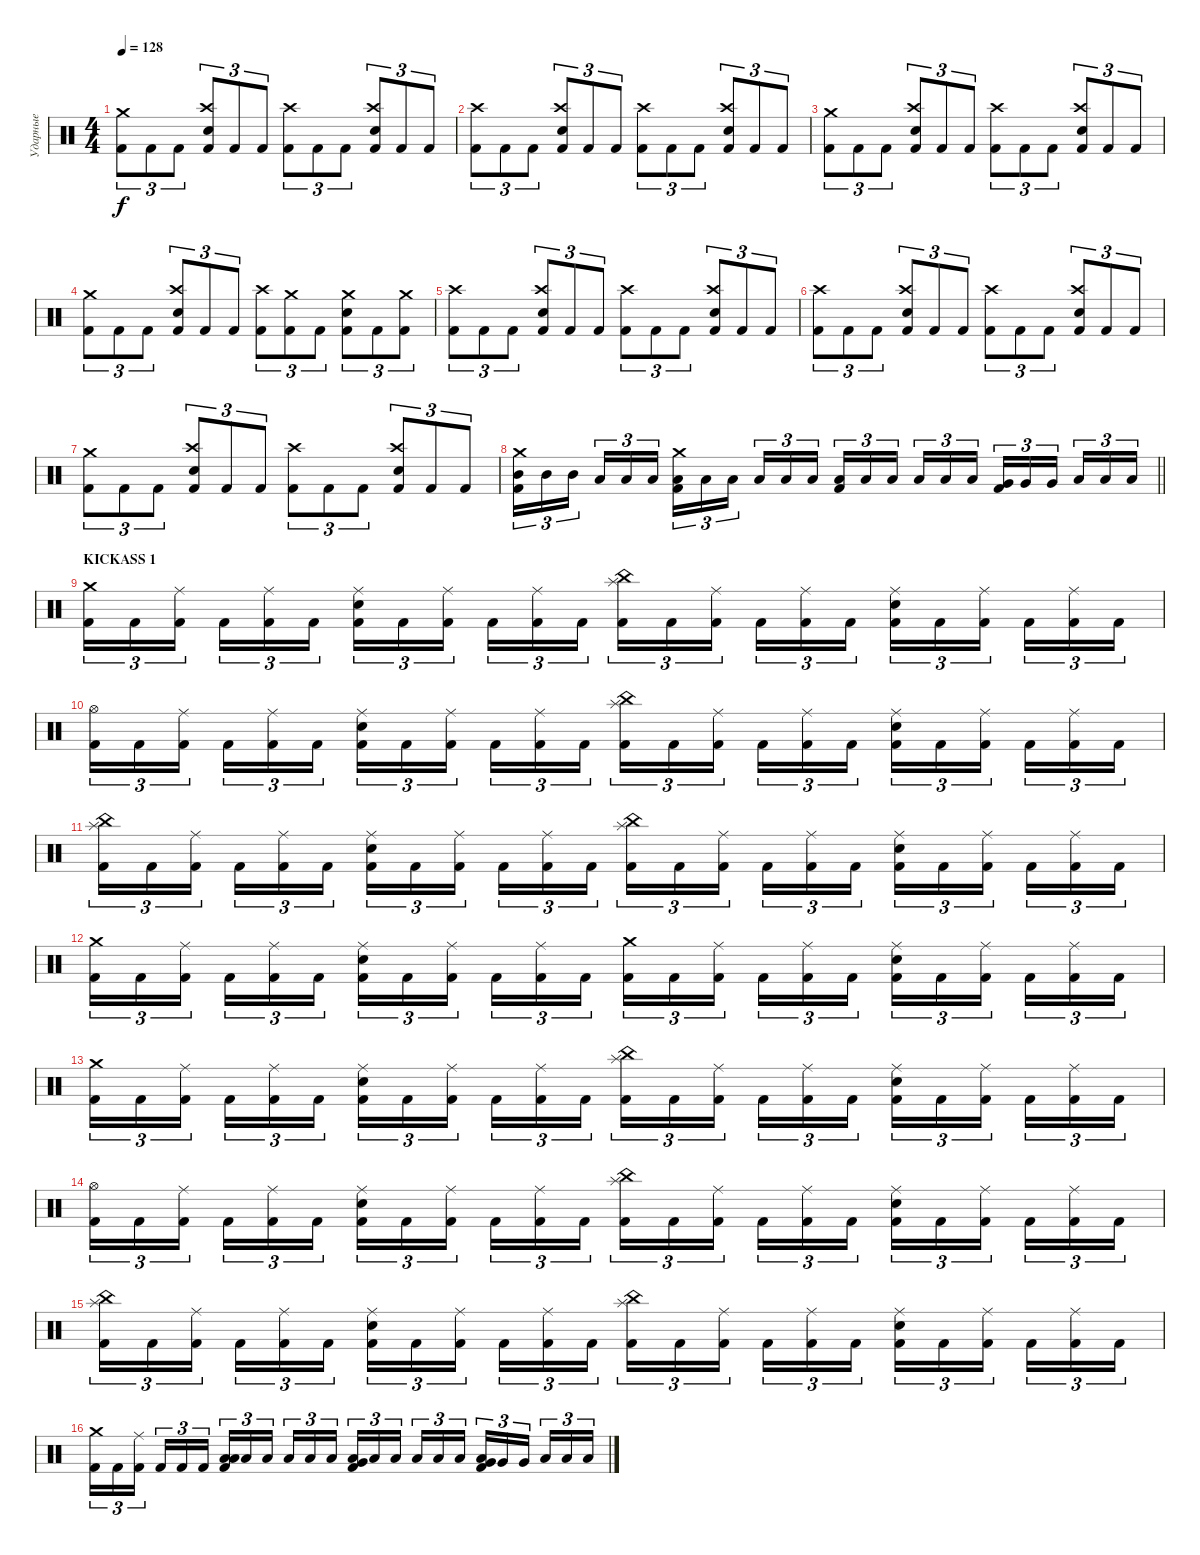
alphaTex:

\track ("Ударные" "Ударные") {instrument percussion}
\staff {score}
\articulation defaults
\ts (4 4)
\tempo 128
\clef neutral
\ks c
("Crash medium (hit)" "Kick (hit) 2").8{tu (3 2) dy f} "Kick (hit) 2".8{tu (3 2)} "Kick (hit) 2".8{tu (3 2)} ("Crash high (hit)" "Electric Snare (hit)" "Kick (hit) 2").8{tu (3 2)} "Kick (hit) 2".8{tu (3 2)} "Kick (hit) 2".8{tu (3 2)} ("Crash high (hit)" "Kick (hit) 2").8{tu (3 2)} "Kick (hit) 2".8{tu (3 2)} "Kick (hit) 2".8{tu (3 2)} ("Crash high (hit)" "Electric Snare (hit)" "Kick (hit) 2").8{tu (3 2)} "Kick (hit) 2".8{tu (3 2)} "Kick (hit) 2".8{tu (3 2)} |
("Crash high (hit)" "Kick (hit) 2").8{tu (3 2)} "Kick (hit) 2".8{tu (3 2)} "Kick (hit) 2".8{tu (3 2)} ("Crash high (hit)" "Electric Snare (hit)" "Kick (hit) 2").8{tu (3 2)} "Kick (hit) 2".8{tu (3 2)} "Kick (hit) 2".8{tu (3 2)} ("Crash high (hit)" "Kick (hit) 2").8{tu (3 2)} "Kick (hit) 2".8{tu (3 2)} "Kick (hit) 2".8{tu (3 2)} ("Crash high (hit)" "Electric Snare (hit)" "Kick (hit) 2").8{tu (3 2)} "Kick (hit) 2".8{tu (3 2)} "Kick (hit) 2".8{tu (3 2)} |
("Crash medium (hit)" "Kick (hit) 2").8{tu (3 2)} "Kick (hit) 2".8{tu (3 2)} "Kick (hit) 2".8{tu (3 2)} ("Crash high (hit)" "Electric Snare (hit)" "Kick (hit) 2").8{tu (3 2)} "Kick (hit) 2".8{tu (3 2)} "Kick (hit) 2".8{tu (3 2)} ("Crash high (hit)" "Kick (hit) 2").8{tu (3 2)} "Kick (hit) 2".8{tu (3 2)} "Kick (hit) 2".8{tu (3 2)} ("Crash high (hit)" "Electric Snare (hit)" "Kick (hit) 2").8{tu (3 2)} "Kick (hit) 2".8{tu (3 2)} "Kick (hit) 2".8{tu (3 2)} |
("Crash medium (hit)" "Kick (hit) 2").8{tu (3 2)} "Kick (hit) 2".8{tu (3 2)} "Kick (hit) 2".8{tu (3 2)} ("Crash high (hit)" "Electric Snare (hit)" "Kick (hit) 2").8{tu (3 2)} "Kick (hit) 2".8{tu (3 2)} "Kick (hit) 2".8{tu (3 2)} ("Crash high (hit)" "Kick (hit) 2").8{tu (3 2)} ("Crash medium (hit)" "Kick (hit) 2").8{tu (3 2)} "Kick (hit) 2".8{tu (3 2)} ("Crash medium (hit)" "Electric Snare (hit)" "Kick (hit) 2").8{tu (3 2)} "Kick (hit) 2".8{tu (3 2)} ("Crash medium (hit)" "Kick (hit) 2").8{tu (3 2)} |
("Crash high (hit)" "Kick (hit) 2").8{tu (3 2)} "Kick (hit) 2".8{tu (3 2)} "Kick (hit) 2".8{tu (3 2)} ("Crash high (hit)" "Electric Snare (hit)" "Kick (hit) 2").8{tu (3 2)} "Kick (hit) 2".8{tu (3 2)} "Kick (hit) 2".8{tu (3 2)} ("Crash high (hit)" "Kick (hit) 2").8{tu (3 2)} "Kick (hit) 2".8{tu (3 2)} "Kick (hit) 2".8{tu (3 2)} ("Crash high (hit)" "Electric Snare (hit)" "Kick (hit) 2").8{tu (3 2)} "Kick (hit) 2".8{tu (3 2)} "Kick (hit) 2".8{tu (3 2)} |
("Crash high (hit)" "Kick (hit) 2").8{tu (3 2)} "Kick (hit) 2".8{tu (3 2)} "Kick (hit) 2".8{tu (3 2)} ("Crash high (hit)" "Electric Snare (hit)" "Kick (hit) 2").8{tu (3 2)} "Kick (hit) 2".8{tu (3 2)} "Kick (hit) 2".8{tu (3 2)} ("Crash high (hit)" "Kick (hit) 2").8{tu (3 2)} "Kick (hit) 2".8{tu (3 2)} "Kick (hit) 2".8{tu (3 2)} ("Crash high (hit)" "Electric Snare (hit)" "Kick (hit) 2").8{tu (3 2)} "Kick (hit) 2".8{tu (3 2)} "Kick (hit) 2".8{tu (3 2)} |
("Crash medium (hit)" "Kick (hit) 2").8{tu (3 2)} "Kick (hit) 2".8{tu (3 2)} "Kick (hit) 2".8{tu (3 2)} ("Crash high (hit)" "Electric Snare (hit)" "Kick (hit) 2").8{tu (3 2)} "Kick (hit) 2".8{tu (3 2)} "Kick (hit) 2".8{tu (3 2)} ("Crash high (hit)" "Kick (hit) 2").8{tu (3 2)} "Kick (hit) 2".8{tu (3 2)} "Kick (hit) 2".8{tu (3 2)} ("Crash high (hit)" "Electric Snare (hit)" "Kick (hit) 2").8{tu (3 2)} "Kick (hit) 2".8{tu (3 2)} "Kick (hit) 2".8{tu (3 2)} |
\barLineRight lightlight
("Crash medium (hit)" "Mid Tom (hit)" "Kick (hit) 2").16{tu (3 2)} "Mid Tom (hit)".16{tu (3 2)} "Mid Tom (hit)".16{tu (3 2) beam splitsecondary} "Low Tom (hit)".16{tu (3 2)} "Low Tom (hit)".16{tu (3 2)} "Low Tom (hit)".16{tu (3 2)} ("Crash medium (hit)" "Low Tom (hit)" "Kick (hit) 2").16{tu (3 2)} "Low Tom (hit)".16{tu (3 2)} "Low Tom (hit)".16{tu (3 2) beam splitsecondary} "Low Tom (hit)".16{tu (3 2)} "Low Tom (hit)".16{tu (3 2)} "Low Tom (hit)".16{tu (3 2)} ("Low Tom (hit)" "Kick (hit) 2").16{tu (3 2)} "Low Tom (hit)".16{tu (3 2)} "Low Tom (hit)".16{tu (3 2) beam splitsecondary} "Low Tom (hit)".16{tu (3 2)} "Low Tom (hit)".16{tu (3 2)} "Low Tom (hit)".16{tu (3 2)} ("Very Low Tom (hit)" "Kick (hit) 2").16{tu (3 2)} "Very Low Tom (hit)".16{tu (3 2)} "Very Low Tom (hit)".16{tu (3 2) beam splitsecondary} "Low Floor Tom (hit)".16{tu (3 2)} "Low Floor Tom (hit)".16{tu (3 2)} "Low Floor Tom (hit)".16{tu (3 2)} |
\section ("" "KICKASS 1")
("Crash medium (hit)" "Kick (hit) 2").16{tu (3 2)} "Kick (hit) 2".16{tu (3 2)} ("Ride (middle)" "Kick (hit) 2").16{tu (3 2) beam splitsecondary} "Kick (hit) 2".16{tu (3 2)} ("Ride (middle)" "Kick (hit) 2").16{tu (3 2)} "Kick (hit) 2".16{tu (3 2)} ("Ride (middle)" "Electric Snare (hit)" "Kick (hit) 2").16{tu (3 2)} "Kick (hit) 2".16{tu (3 2)} ("Ride (middle)" "Kick (hit) 2").16{tu (3 2) beam splitsecondary} "Kick (hit) 2".16{tu (3 2)} ("Ride (middle)" "Kick (hit) 2").16{tu (3 2)} "Kick (hit) 2".16{tu (3 2)} ("China (hit)" "Splash (hit)" "Kick (hit) 2").16{tu (3 2)} "Kick (hit) 2".16{tu (3 2)} ("Ride (middle)" "Kick (hit) 2").16{tu (3 2) beam splitsecondary} "Kick (hit) 2".16{tu (3 2)} ("Ride (middle)" "Kick (hit) 2").16{tu (3 2)} "Kick (hit) 2".16{tu (3 2)} ("Ride (middle)" "Electric Snare (hit)" "Kick (hit) 2").16{tu (3 2)} "Kick (hit) 2".16{tu (3 2)} ("Ride (middle)" "Kick (hit) 2").16{tu (3 2) beam splitsecondary} "Kick (hit) 2".16{tu (3 2)} ("Ride (middle)" "Kick (hit) 2").16{tu (3 2)} "Kick (hit) 2".16{tu (3 2)} |
("Hi-Hat (open)" "Kick (hit) 2").16{tu (3 2)} "Kick (hit) 2".16{tu (3 2)} ("Ride (middle)" "Kick (hit) 2").16{tu (3 2) beam splitsecondary} "Kick (hit) 2".16{tu (3 2)} ("Ride (middle)" "Kick (hit) 2").16{tu (3 2)} "Kick (hit) 2".16{tu (3 2)} ("Ride (middle)" "Electric Snare (hit)" "Kick (hit) 2").16{tu (3 2)} "Kick (hit) 2".16{tu (3 2)} ("Ride (middle)" "Kick (hit) 2").16{tu (3 2) beam splitsecondary} "Kick (hit) 2".16{tu (3 2)} ("Ride (middle)" "Kick (hit) 2").16{tu (3 2)} "Kick (hit) 2".16{tu (3 2)} ("China (hit)" "Splash (hit)" "Kick (hit) 2").16{tu (3 2)} "Kick (hit) 2".16{tu (3 2)} ("Ride (middle)" "Kick (hit) 2").16{tu (3 2) beam splitsecondary} "Kick (hit) 2".16{tu (3 2)} ("Ride (middle)" "Kick (hit) 2").16{tu (3 2)} "Kick (hit) 2".16{tu (3 2)} ("Ride (middle)" "Electric Snare (hit)" "Kick (hit) 2").16{tu (3 2)} "Kick (hit) 2".16{tu (3 2)} ("Ride (middle)" "Kick (hit) 2").16{tu (3 2) beam splitsecondary} "Kick (hit) 2".16{tu (3 2)} ("Ride (middle)" "Kick (hit) 2").16{tu (3 2)} "Kick (hit) 2".16{tu (3 2)} |
("China (hit)" "Splash (hit)" "Kick (hit) 2").16{tu (3 2)} "Kick (hit) 2".16{tu (3 2)} ("Ride (middle)" "Kick (hit) 2").16{tu (3 2) beam splitsecondary} "Kick (hit) 2".16{tu (3 2)} ("Ride (middle)" "Kick (hit) 2").16{tu (3 2)} "Kick (hit) 2".16{tu (3 2)} ("Ride (middle)" "Electric Snare (hit)" "Kick (hit) 2").16{tu (3 2)} "Kick (hit) 2".16{tu (3 2)} ("Ride (middle)" "Kick (hit) 2").16{tu (3 2) beam splitsecondary} "Kick (hit) 2".16{tu (3 2)} ("Ride (middle)" "Kick (hit) 2").16{tu (3 2)} "Kick (hit) 2".16{tu (3 2)} ("China (hit)" "Splash (hit)" "Kick (hit) 2").16{tu (3 2)} "Kick (hit) 2".16{tu (3 2)} ("Ride (middle)" "Kick (hit) 2").16{tu (3 2) beam splitsecondary} "Kick (hit) 2".16{tu (3 2)} ("Ride (middle)" "Kick (hit) 2").16{tu (3 2)} "Kick (hit) 2".16{tu (3 2)} ("Ride (middle)" "Electric Snare (hit)" "Kick (hit) 2").16{tu (3 2)} "Kick (hit) 2".16{tu (3 2)} ("Ride (middle)" "Kick (hit) 2").16{tu (3 2) beam splitsecondary} "Kick (hit) 2".16{tu (3 2)} ("Ride (middle)" "Kick (hit) 2").16{tu (3 2)} "Kick (hit) 2".16{tu (3 2)} |
("Crash medium (hit)" "Kick (hit) 2").16{tu (3 2)} "Kick (hit) 2".16{tu (3 2)} ("Ride (middle)" "Kick (hit) 2").16{tu (3 2) beam splitsecondary} "Kick (hit) 2".16{tu (3 2)} ("Ride (middle)" "Kick (hit) 2").16{tu (3 2)} "Kick (hit) 2".16{tu (3 2)} ("Ride (middle)" "Electric Snare (hit)" "Kick (hit) 2").16{tu (3 2)} "Kick (hit) 2".16{tu (3 2)} ("Ride (middle)" "Kick (hit) 2").16{tu (3 2) beam splitsecondary} "Kick (hit) 2".16{tu (3 2)} ("Ride (middle)" "Kick (hit) 2").16{tu (3 2)} "Kick (hit) 2".16{tu (3 2)} ("Crash medium (hit)" "Kick (hit) 2").16{tu (3 2)} "Kick (hit) 2".16{tu (3 2)} ("Ride (middle)" "Kick (hit) 2").16{tu (3 2) beam splitsecondary} "Kick (hit) 2".16{tu (3 2)} ("Ride (middle)" "Kick (hit) 2").16{tu (3 2)} "Kick (hit) 2".16{tu (3 2)} ("Ride (middle)" "Electric Snare (hit)" "Kick (hit) 2").16{tu (3 2)} "Kick (hit) 2".16{tu (3 2)} ("Ride (middle)" "Kick (hit) 2").16{tu (3 2) beam splitsecondary} "Kick (hit) 2".16{tu (3 2)} ("Ride (middle)" "Kick (hit) 2").16{tu (3 2)} "Kick (hit) 2".16{tu (3 2)} |
("Crash medium (hit)" "Kick (hit) 2").16{tu (3 2)} "Kick (hit) 2".16{tu (3 2)} ("Ride (middle)" "Kick (hit) 2").16{tu (3 2) beam splitsecondary} "Kick (hit) 2".16{tu (3 2)} ("Ride (middle)" "Kick (hit) 2").16{tu (3 2)} "Kick (hit) 2".16{tu (3 2)} ("Ride (middle)" "Electric Snare (hit)" "Kick (hit) 2").16{tu (3 2)} "Kick (hit) 2".16{tu (3 2)} ("Ride (middle)" "Kick (hit) 2").16{tu (3 2) beam splitsecondary} "Kick (hit) 2".16{tu (3 2)} ("Ride (middle)" "Kick (hit) 2").16{tu (3 2)} "Kick (hit) 2".16{tu (3 2)} ("China (hit)" "Splash (hit)" "Kick (hit) 2").16{tu (3 2)} "Kick (hit) 2".16{tu (3 2)} ("Ride (middle)" "Kick (hit) 2").16{tu (3 2) beam splitsecondary} "Kick (hit) 2".16{tu (3 2)} ("Ride (middle)" "Kick (hit) 2").16{tu (3 2)} "Kick (hit) 2".16{tu (3 2)} ("Ride (middle)" "Electric Snare (hit)" "Kick (hit) 2").16{tu (3 2)} "Kick (hit) 2".16{tu (3 2)} ("Ride (middle)" "Kick (hit) 2").16{tu (3 2) beam splitsecondary} "Kick (hit) 2".16{tu (3 2)} ("Ride (middle)" "Kick (hit) 2").16{tu (3 2)} "Kick (hit) 2".16{tu (3 2)} |
("Hi-Hat (open)" "Kick (hit) 2").16{tu (3 2)} "Kick (hit) 2".16{tu (3 2)} ("Ride (middle)" "Kick (hit) 2").16{tu (3 2) beam splitsecondary} "Kick (hit) 2".16{tu (3 2)} ("Ride (middle)" "Kick (hit) 2").16{tu (3 2)} "Kick (hit) 2".16{tu (3 2)} ("Ride (middle)" "Electric Snare (hit)" "Kick (hit) 2").16{tu (3 2)} "Kick (hit) 2".16{tu (3 2)} ("Ride (middle)" "Kick (hit) 2").16{tu (3 2) beam splitsecondary} "Kick (hit) 2".16{tu (3 2)} ("Ride (middle)" "Kick (hit) 2").16{tu (3 2)} "Kick (hit) 2".16{tu (3 2)} ("China (hit)" "Splash (hit)" "Kick (hit) 2").16{tu (3 2)} "Kick (hit) 2".16{tu (3 2)} ("Ride (middle)" "Kick (hit) 2").16{tu (3 2) beam splitsecondary} "Kick (hit) 2".16{tu (3 2)} ("Ride (middle)" "Kick (hit) 2").16{tu (3 2)} "Kick (hit) 2".16{tu (3 2)} ("Ride (middle)" "Electric Snare (hit)" "Kick (hit) 2").16{tu (3 2)} "Kick (hit) 2".16{tu (3 2)} ("Ride (middle)" "Kick (hit) 2").16{tu (3 2) beam splitsecondary} "Kick (hit) 2".16{tu (3 2)} ("Ride (middle)" "Kick (hit) 2").16{tu (3 2)} "Kick (hit) 2".16{tu (3 2)} |
("China (hit)" "Splash (hit)" "Kick (hit) 2").16{tu (3 2)} "Kick (hit) 2".16{tu (3 2)} ("Ride (middle)" "Kick (hit) 2").16{tu (3 2) beam splitsecondary} "Kick (hit) 2".16{tu (3 2)} ("Ride (middle)" "Kick (hit) 2").16{tu (3 2)} "Kick (hit) 2".16{tu (3 2)} ("Ride (middle)" "Electric Snare (hit)" "Kick (hit) 2").16{tu (3 2)} "Kick (hit) 2".16{tu (3 2)} ("Ride (middle)" "Kick (hit) 2").16{tu (3 2) beam splitsecondary} "Kick (hit) 2".16{tu (3 2)} ("Ride (middle)" "Kick (hit) 2").16{tu (3 2)} "Kick (hit) 2".16{tu (3 2)} ("China (hit)" "Splash (hit)" "Kick (hit) 2").16{tu (3 2)} "Kick (hit) 2".16{tu (3 2)} ("Ride (middle)" "Kick (hit) 2").16{tu (3 2) beam splitsecondary} "Kick (hit) 2".16{tu (3 2)} ("Ride (middle)" "Kick (hit) 2").16{tu (3 2)} "Kick (hit) 2".16{tu (3 2)} ("Ride (middle)" "Electric Snare (hit)" "Kick (hit) 2").16{tu (3 2)} "Kick (hit) 2".16{tu (3 2)} ("Ride (middle)" "Kick (hit) 2").16{tu (3 2) beam splitsecondary} "Kick (hit) 2".16{tu (3 2)} ("Ride (middle)" "Kick (hit) 2").16{tu (3 2)} "Kick (hit) 2".16{tu (3 2)} |
("Crash medium (hit)" "Kick (hit) 2").16{tu (3 2)} "Kick (hit) 2".16{tu (3 2)} ("Ride (middle)" "Kick (hit) 2").16{tu (3 2) beam splitsecondary} "Kick (hit) 2".16{tu (3 2)} "Kick (hit) 2".16{tu (3 2)} "Kick (hit) 2".16{tu (3 2)} ("Low Floor Tom (hit)" "Low Tom (hit)" "Kick (hit) 2").16{tu (3 2)} "Low Tom (hit)".16{tu (3 2)} "Low Tom (hit)".16{tu (3 2) beam splitsecondary} "Low Tom (hit)".16{tu (3 2)} "Low Tom (hit)".16{tu (3 2)} "Low Tom (hit)".16{tu (3 2)} ("Very Low Tom (hit)" "Low Tom (hit)" "Kick (hit) 2").16{tu (3 2)} "Low Tom (hit)".16{tu (3 2)} "Low Tom (hit)".16{tu (3 2) beam splitsecondary} "Low Tom (hit)".16{tu (3 2)} "Low Tom (hit)".16{tu (3 2)} "Low Tom (hit)".16{tu (3 2)} ("Very Low Tom (hit)" "Low Floor Tom (hit)" "Kick (hit) 2").16{tu (3 2)} "Very Low Tom (hit)".16{tu (3 2)} "Very Low Tom (hit)".16{tu (3 2) beam splitsecondary} "Low Floor Tom (hit)".16{tu (3 2)} "Low Floor Tom (hit)".16{tu (3 2)} "Low Floor Tom (hit)".16{tu (3 2)}
